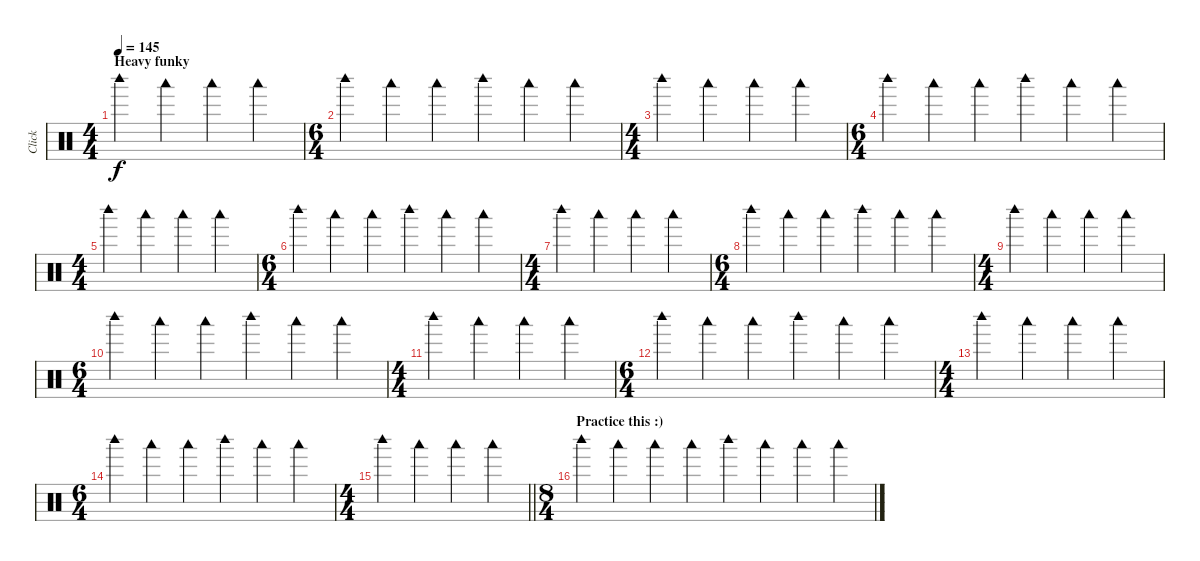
\track ("Click" "Click") {mute instrument percussion}
\staff {score}
\articulation defaults
\ts (4 4)
\section ("" "Heavy funky")
\tempo 145
\clef neutral
\ks c "Woodblock high (hit)".4{dy f} "Woodblock low (hit)".4 "Woodblock low (hit)".4 "Woodblock low (hit)".4
|
\ts (6 4)
"Woodblock high (hit)".4 "Woodblock low (hit)".4 "Woodblock low (hit)".4 "Woodblock high (hit)".4 "Woodblock low (hit)".4 "Woodblock low (hit)".4 |
\ts (4 4)
"Woodblock high (hit)".4 "Woodblock low (hit)".4 "Woodblock low (hit)".4 "Woodblock low (hit)".4 |
\ts (6 4)
"Woodblock high (hit)".4 "Woodblock low (hit)".4 "Woodblock low (hit)".4 "Woodblock high (hit)".4 "Woodblock low (hit)".4 "Woodblock low (hit)".4 |
\ts (4 4)
"Woodblock high (hit)".4 "Woodblock low (hit)".4 "Woodblock low (hit)".4 "Woodblock low (hit)".4 |
\ts (6 4)
"Woodblock high (hit)".4 "Woodblock low (hit)".4 "Woodblock low (hit)".4 "Woodblock high (hit)".4 "Woodblock low (hit)".4 "Woodblock low (hit)".4 |
\ts (4 4)
"Woodblock high (hit)".4 "Woodblock low (hit)".4 "Woodblock low (hit)".4 "Woodblock low (hit)".4 |
\ts (6 4)
"Woodblock high (hit)".4 "Woodblock low (hit)".4 "Woodblock low (hit)".4 "Woodblock high (hit)".4 "Woodblock low (hit)".4 "Woodblock low (hit)".4 |
\ts (4 4)
"Woodblock high (hit)".4 "Woodblock low (hit)".4 "Woodblock low (hit)".4 "Woodblock low (hit)".4 |
\ts (6 4)
"Woodblock high (hit)".4 "Woodblock low (hit)".4 "Woodblock low (hit)".4 "Woodblock high (hit)".4 "Woodblock low (hit)".4 "Woodblock low (hit)".4 |
\ts (4 4)
"Woodblock high (hit)".4 "Woodblock low (hit)".4 "Woodblock low (hit)".4 "Woodblock low (hit)".4 |
\ts (6 4)
"Woodblock high (hit)".4 "Woodblock low (hit)".4 "Woodblock low (hit)".4 "Woodblock high (hit)".4 "Woodblock low (hit)".4 "Woodblock low (hit)".4 |
\ts (4 4)
"Woodblock high (hit)".4 "Woodblock low (hit)".4 "Woodblock low (hit)".4 "Woodblock low (hit)".4 |
\ts (6 4)
"Woodblock high (hit)".4 "Woodblock low (hit)".4 "Woodblock low (hit)".4 "Woodblock high (hit)".4 "Woodblock low (hit)".4 "Woodblock low (hit)".4 |
\ts (4 4)
\barLineRight lightlight "Woodblock high (hit)".4 "Woodblock low (hit)".4 "Woodblock low (hit)".4 "Woodblock low (hit)".4
|
\ts (8 4)
\section ("" "Practice this :)")
"Woodblock high (hit)".4 "Woodblock low (hit)".4 "Woodblock low (hit)".4 "Woodblock low (hit)".4 "Woodblock high (hit)".4 "Woodblock low (hit)".4 "Woodblock low (hit)".4 "Woodblock low (hit)".4
